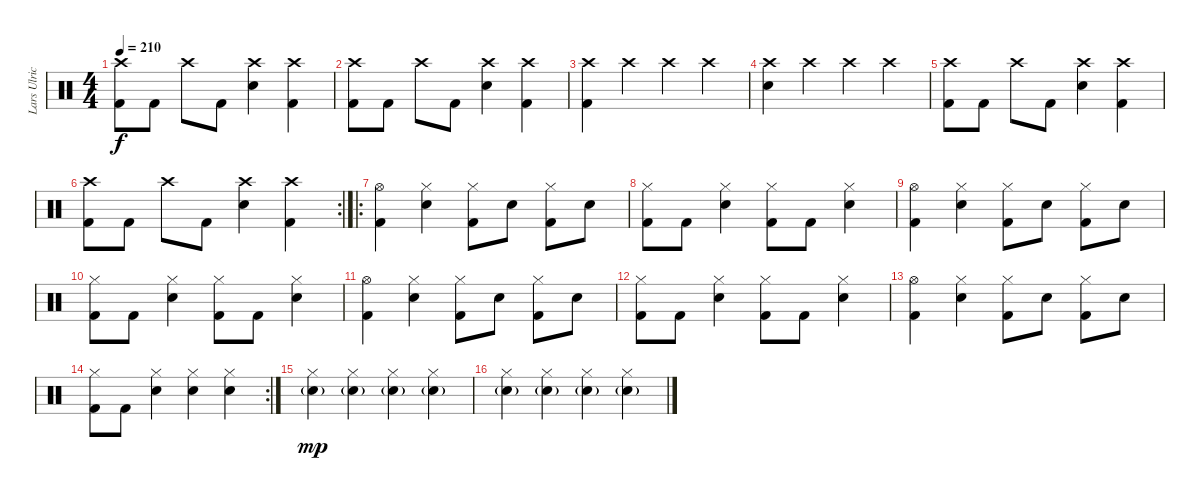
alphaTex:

\track ("Lars Ulrich" "Lars Ulric") {instrument percussion}
\staff {score}
\articulation defaults
\ts (4 4)
\tempo 210
\clef neutral
\ks c
("Crash high (hit)" "Kick (hit) 2").8{dy f} "Kick (hit) 2".8 "Crash high (hit)".8 "Kick (hit) 2".8 ("Crash high (hit)" "Snare (hit) 2").4 ("Crash high (hit)" "Kick (hit) 2").4 |
("Crash high (hit)" "Kick (hit) 2").8 "Kick (hit) 2".8 "Crash high (hit)".8 "Kick (hit) 2".8 ("Crash high (hit)" "Snare (hit) 2").4 ("Crash high (hit)" "Kick (hit) 2").4 |
("Crash high (hit)" "Kick (hit) 2").4 "Crash high (hit)".4 "Crash high (hit)".4 "Crash high (hit)".4 |
("Crash high (hit)" "Snare (hit) 2").4 "Crash high (hit)".4 "Crash high (hit)".4 "Crash high (hit)".4 |
("Crash high (hit)" "Kick (hit) 2").8 "Kick (hit) 2".8 "Crash high (hit)".8 "Kick (hit) 2".8 ("Crash high (hit)" "Snare (hit) 2").4 ("Crash high (hit)" "Kick (hit) 2").4 |
\rc 2
("Crash high (hit)" "Kick (hit) 2").8 "Kick (hit) 2".8 "Crash high (hit)".8 "Kick (hit) 2".8 ("Crash high (hit)" "Snare (hit) 2").4 ("Crash high (hit)" "Kick (hit) 2").4 |
\ro
("Hi-Hat (open)" "Kick (hit) 2").4 ("Hi-Hat (closed)" "Snare (hit) 2").4 ("Hi-Hat (closed)" "Kick (hit) 2").8 "Snare (hit) 2".8 ("Hi-Hat (closed)" "Kick (hit) 2").8 "Snare (hit) 2".8 |
("Hi-Hat (closed)" "Kick (hit) 2").8 "Kick (hit) 2".8 ("Hi-Hat (closed)" "Snare (hit) 2").4 ("Hi-Hat (closed)" "Kick (hit) 2").8 "Kick (hit) 2".8 ("Hi-Hat (closed)" "Snare (hit) 2").4 |
("Hi-Hat (open)" "Kick (hit) 2").4 ("Hi-Hat (closed)" "Snare (hit) 2").4 ("Hi-Hat (closed)" "Kick (hit) 2").8 "Snare (hit) 2".8 ("Hi-Hat (closed)" "Kick (hit) 2").8 "Snare (hit) 2".8 |
("Hi-Hat (closed)" "Kick (hit) 2").8 "Kick (hit) 2".8 ("Hi-Hat (closed)" "Snare (hit) 2").4 ("Hi-Hat (closed)" "Kick (hit) 2").8 "Kick (hit) 2".8 ("Hi-Hat (closed)" "Snare (hit) 2").4 |
("Hi-Hat (open)" "Kick (hit) 2").4 ("Hi-Hat (closed)" "Snare (hit) 2").4 ("Hi-Hat (closed)" "Kick (hit) 2").8 "Snare (hit) 2".8 ("Hi-Hat (closed)" "Kick (hit) 2").8 "Snare (hit) 2".8 |
("Hi-Hat (closed)" "Kick (hit) 2").8 "Kick (hit) 2".8 ("Hi-Hat (closed)" "Snare (hit) 2").4 ("Hi-Hat (closed)" "Kick (hit) 2").8 "Kick (hit) 2".8 ("Hi-Hat (closed)" "Snare (hit) 2").4 |
("Hi-Hat (open)" "Kick (hit) 2").4 ("Hi-Hat (closed)" "Snare (hit) 2").4 ("Hi-Hat (closed)" "Kick (hit) 2").8 "Snare (hit) 2".8 ("Hi-Hat (closed)" "Kick (hit) 2").8 "Snare (hit) 2".8 |
\rc 2
("Hi-Hat (closed)" "Kick (hit) 2").8 "Kick (hit) 2".8 ("Hi-Hat (closed)" "Snare (hit) 2").4 ("Hi-Hat (closed)" "Snare (hit) 2").4 ("Hi-Hat (closed)" "Snare (hit) 2").4 |
("Hi-Hat (closed)" "Snare (hit) 2"{g}).4{dy mp} ("Hi-Hat (closed)" "Snare (hit) 2"{g}).4 ("Hi-Hat (closed)" "Snare (hit) 2"{g}).4 ("Hi-Hat (closed)" "Snare (hit) 2"{g}).4 |
("Hi-Hat (closed)" "Snare (hit) 2"{g}).4 ("Hi-Hat (closed)" "Snare (hit) 2"{g}).4 ("Hi-Hat (closed)" "Snare (hit) 2"{g}).4 ("Hi-Hat (closed)" "Snare (hit) 2"{g}).4
